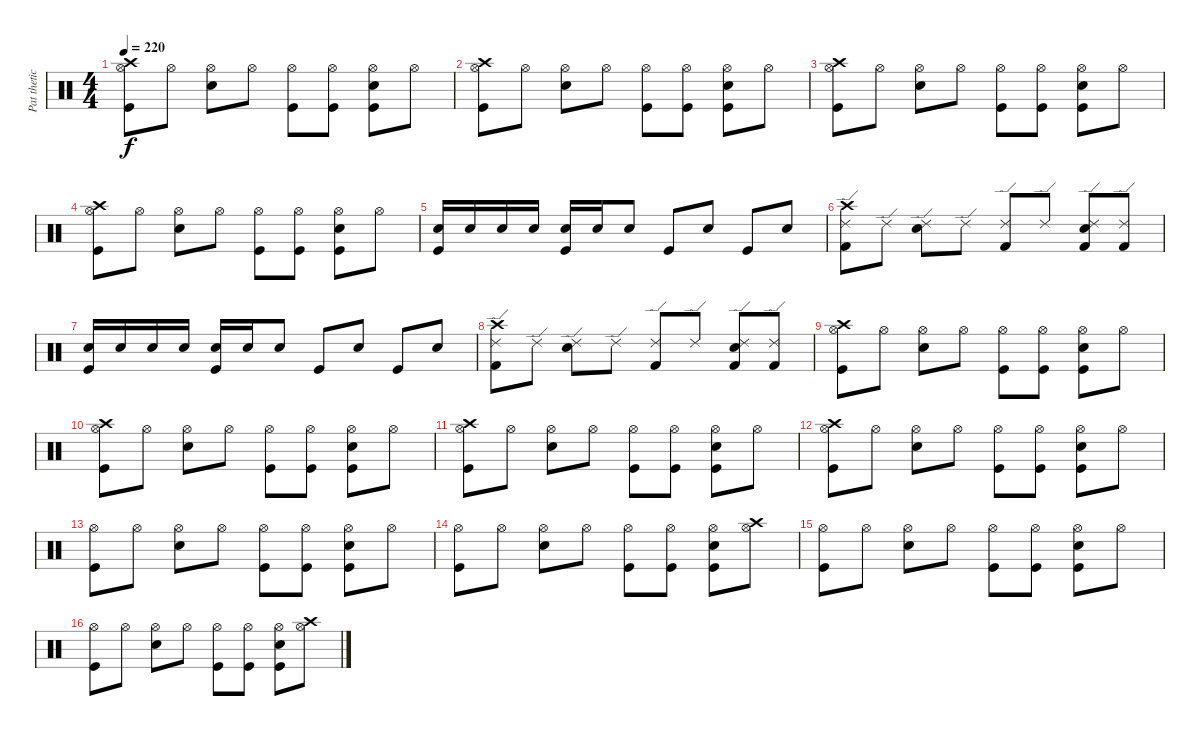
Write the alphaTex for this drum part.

\track ("Pat thetic (Drums)" "Pat thetic") {instrument percussion}
\staff {score}
\articulation defaults
\ts (4 4)
\tempo 220
\clef neutral
\ks c
("Kick (hit)" "Crash high (hit)" "Hi-Hat (open)").8{dy f} "Hi-Hat (open)".8 ("Electric Snare (hit)" "Hi-Hat (open)").8 "Hi-Hat (open)".8 ("Kick (hit)" "Hi-Hat (open)").8 ("Kick (hit)" "Hi-Hat (open)").8 ("Kick (hit)" "Electric Snare (hit)" "Hi-Hat (open)").8 "Hi-Hat (open)".8 |
("Kick (hit)" "Crash high (hit)" "Hi-Hat (open)").8 "Hi-Hat (open)".8 ("Electric Snare (hit)" "Hi-Hat (open)").8 "Hi-Hat (open)".8 ("Kick (hit)" "Hi-Hat (open)").8 ("Kick (hit)" "Hi-Hat (open)").8 ("Kick (hit)" "Electric Snare (hit)" "Hi-Hat (open)").8 "Hi-Hat (open)".8 |
("Kick (hit)" "Crash high (hit)" "Hi-Hat (open)").8 "Hi-Hat (open)".8 ("Electric Snare (hit)" "Hi-Hat (open)").8 "Hi-Hat (open)".8 ("Kick (hit)" "Hi-Hat (open)").8 ("Kick (hit)" "Hi-Hat (open)").8 ("Kick (hit)" "Electric Snare (hit)" "Hi-Hat (open)").8 "Hi-Hat (open)".8 |
("Kick (hit)" "Crash high (hit)" "Hi-Hat (open)").8 "Hi-Hat (open)".8 ("Electric Snare (hit)" "Hi-Hat (open)").8 "Hi-Hat (open)".8 ("Kick (hit)" "Hi-Hat (open)").8 ("Kick (hit)" "Hi-Hat (open)").8 ("Kick (hit)" "Electric Snare (hit)" "Hi-Hat (open)").8 "Hi-Hat (open)".8 |
("Kick (hit)" "Electric Snare (hit)").16 "Electric Snare (hit)".16 "Electric Snare (hit)".16 "Electric Snare (hit)".16 ("Kick (hit)" "Electric Snare (hit)").16 "Electric Snare (hit)".16 "Electric Snare (hit)".8 "Kick (hit)".8 "Electric Snare (hit)".8 "Kick (hit)".8 "Electric Snare (hit)".8 |
("Kick (hit) 2" "Crash high (hit)" "Ride (edge) 2").8 "Ride (edge) 2".8 ("Electric Snare (hit)" "Ride (edge) 2").8 "Ride (edge) 2".8 ("Kick (hit) 2" "Ride (edge) 2").8 "Ride (edge) 2".8 ("Kick (hit) 2" "Electric Snare (hit)" "Ride (edge) 2").8 ("Kick (hit) 2" "Ride (edge) 2").8 |
("Kick (hit)" "Electric Snare (hit)").16 "Electric Snare (hit)".16 "Electric Snare (hit)".16 "Electric Snare (hit)".16 ("Kick (hit)" "Electric Snare (hit)").16 "Electric Snare (hit)".16 "Electric Snare (hit)".8 "Kick (hit)".8 "Electric Snare (hit)".8 "Kick (hit)".8 "Electric Snare (hit)".8 |
("Kick (hit) 2" "Crash high (hit)" "Ride (edge) 2").8 "Ride (edge) 2".8 ("Electric Snare (hit)" "Ride (edge) 2").8 "Ride (edge) 2".8 ("Kick (hit) 2" "Ride (edge) 2").8 "Ride (edge) 2".8 ("Kick (hit) 2" "Electric Snare (hit)" "Ride (edge) 2").8 ("Kick (hit) 2" "Ride (edge) 2").8 |
("Kick (hit)" "Crash high (hit)" "Hi-Hat (open)").8 "Hi-Hat (open)".8 ("Electric Snare (hit)" "Hi-Hat (open)").8 "Hi-Hat (open)".8 ("Kick (hit)" "Hi-Hat (open)").8 ("Kick (hit)" "Hi-Hat (open)").8 ("Kick (hit)" "Electric Snare (hit)" "Hi-Hat (open)").8 "Hi-Hat (open)".8 |
("Kick (hit)" "Crash high (hit)" "Hi-Hat (open)").8 "Hi-Hat (open)".8 ("Electric Snare (hit)" "Hi-Hat (open)").8 "Hi-Hat (open)".8 ("Kick (hit)" "Hi-Hat (open)").8 ("Kick (hit)" "Hi-Hat (open)").8 ("Kick (hit)" "Electric Snare (hit)" "Hi-Hat (open)").8 "Hi-Hat (open)".8 |
("Kick (hit)" "Crash high (hit)" "Hi-Hat (open)").8 "Hi-Hat (open)".8 ("Electric Snare (hit)" "Hi-Hat (open)").8 "Hi-Hat (open)".8 ("Kick (hit)" "Hi-Hat (open)").8 ("Kick (hit)" "Hi-Hat (open)").8 ("Kick (hit)" "Electric Snare (hit)" "Hi-Hat (open)").8 "Hi-Hat (open)".8 |
("Kick (hit)" "Crash high (hit)" "Hi-Hat (open)").8 "Hi-Hat (open)".8 ("Electric Snare (hit)" "Hi-Hat (open)").8 "Hi-Hat (open)".8 ("Kick (hit)" "Hi-Hat (open)").8 ("Kick (hit)" "Hi-Hat (open)").8 ("Kick (hit)" "Electric Snare (hit)" "Hi-Hat (open)").8 "Hi-Hat (open)".8 |
("Kick (hit)" "Hi-Hat (open)").8 "Hi-Hat (open)".8 ("Electric Snare (hit)" "Hi-Hat (open)").8 "Hi-Hat (open)".8 ("Kick (hit)" "Hi-Hat (open)").8 ("Kick (hit)" "Hi-Hat (open)").8 ("Kick (hit)" "Electric Snare (hit)" "Hi-Hat (open)").8 "Hi-Hat (open)".8 |
("Kick (hit)" "Hi-Hat (open)").8 "Hi-Hat (open)".8 ("Electric Snare (hit)" "Hi-Hat (open)").8 "Hi-Hat (open)".8 ("Kick (hit)" "Hi-Hat (open)").8 ("Kick (hit)" "Hi-Hat (open)").8 ("Kick (hit)" "Electric Snare (hit)" "Hi-Hat (open)").8 ("Crash high (hit)" "Hi-Hat (open)").8 |
("Kick (hit)" "Hi-Hat (open)").8 "Hi-Hat (open)".8 ("Electric Snare (hit)" "Hi-Hat (open)").8 "Hi-Hat (open)".8 ("Kick (hit)" "Hi-Hat (open)").8 ("Kick (hit)" "Hi-Hat (open)").8 ("Kick (hit)" "Electric Snare (hit)" "Hi-Hat (open)").8 "Hi-Hat (open)".8 |
("Kick (hit)" "Hi-Hat (open)").8 "Hi-Hat (open)".8 ("Electric Snare (hit)" "Hi-Hat (open)").8 "Hi-Hat (open)".8 ("Kick (hit)" "Hi-Hat (open)").8 ("Kick (hit)" "Hi-Hat (open)").8 ("Kick (hit)" "Electric Snare (hit)" "Hi-Hat (open)").8 ("Crash high (hit)" "Hi-Hat (open)").8
